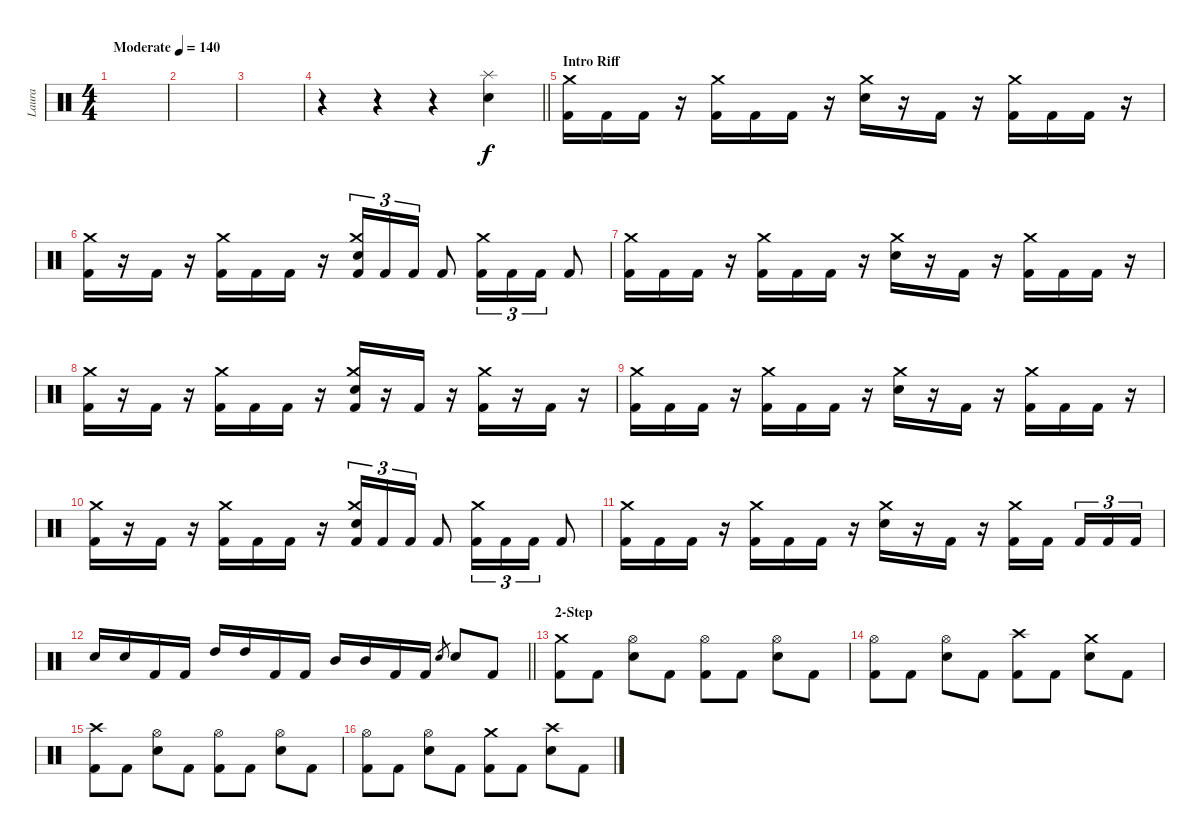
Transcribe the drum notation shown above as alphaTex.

\track ("Laura" "Laura") {instrument percussion}
\staff {score}
\articulation defaults
\ts (4 4)
\tempo (140 "Moderate")
\clef neutral
\ks c
|
|
|
\barLineRight lightlight
r.4 r.4 r.4 ("Splash (hit)" "Electric Snare (hit)").4 |
\section ("" "Intro Riff")
("Crash medium (hit)" "Kick (hit) 2").16 "Kick (hit) 2".16 "Kick (hit) 2".16 r.16 ("Crash medium (hit)" "Kick (hit) 2").16 "Kick (hit) 2".16 "Kick (hit) 2".16 r.16 ("Crash medium (hit)" "Electric Snare (hit)").16 r.16 "Kick (hit) 2".16 r.16 ("Crash medium (hit)" "Kick (hit) 2").16 "Kick (hit) 2".16 "Kick (hit) 2".16 r.16 |
("Crash medium (hit)" "Kick (hit) 2").16 r.16 "Kick (hit) 2".16 r.16 ("Crash medium (hit)" "Kick (hit) 2").16 "Kick (hit) 2".16 "Kick (hit) 2".16 r.16 ("Crash medium (hit)" "Electric Snare (hit)" "Kick (hit) 2").16{tu (3 2)} "Kick (hit) 2".16{tu (3 2)} "Kick (hit) 2".16{tu (3 2)} "Kick (hit) 2".8 ("Crash medium (hit)" "Kick (hit) 2").16{tu (3 2)} "Kick (hit) 2".16{tu (3 2)} "Kick (hit) 2".16{tu (3 2)} "Kick (hit) 2".8 |
("Crash medium (hit)" "Kick (hit) 2").16 "Kick (hit) 2".16 "Kick (hit) 2".16 r.16 ("Crash medium (hit)" "Kick (hit) 2").16 "Kick (hit) 2".16 "Kick (hit) 2".16 r.16 ("Crash medium (hit)" "Electric Snare (hit)").16 r.16 "Kick (hit) 2".16 r.16 ("Crash medium (hit)" "Kick (hit) 2").16 "Kick (hit) 2".16 "Kick (hit) 2".16 r.16 |
("Crash medium (hit)" "Kick (hit) 2").16 r.16 "Kick (hit) 2".16 r.16 ("Crash medium (hit)" "Kick (hit) 2").16 "Kick (hit) 2".16 "Kick (hit) 2".16 r.16 ("Crash medium (hit)" "Electric Snare (hit)" "Kick (hit) 2").16 r.16 "Kick (hit) 2".16 r.16 ("Crash medium (hit)" "Kick (hit) 2").16 r.16 "Kick (hit) 2".16 r.16 |
("Crash medium (hit)" "Kick (hit) 2").16 "Kick (hit) 2".16 "Kick (hit) 2".16 r.16 ("Crash medium (hit)" "Kick (hit) 2").16 "Kick (hit) 2".16 "Kick (hit) 2".16 r.16 ("Crash medium (hit)" "Electric Snare (hit)").16 r.16 "Kick (hit) 2".16 r.16 ("Crash medium (hit)" "Kick (hit) 2").16 "Kick (hit) 2".16 "Kick (hit) 2".16 r.16 |
("Crash medium (hit)" "Kick (hit) 2").16 r.16 "Kick (hit) 2".16 r.16 ("Crash medium (hit)" "Kick (hit) 2").16 "Kick (hit) 2".16 "Kick (hit) 2".16 r.16 ("Crash medium (hit)" "Electric Snare (hit)" "Kick (hit) 2").16{tu (3 2)} "Kick (hit) 2".16{tu (3 2)} "Kick (hit) 2".16{tu (3 2)} "Kick (hit) 2".8 ("Crash medium (hit)" "Kick (hit) 2").16{tu (3 2)} "Kick (hit) 2".16{tu (3 2)} "Kick (hit) 2".16{tu (3 2)} "Kick (hit) 2".8 |
("Crash medium (hit)" "Kick (hit) 2").16 "Kick (hit) 2".16 "Kick (hit) 2".16 r.16 ("Crash medium (hit)" "Kick (hit) 2").16 "Kick (hit) 2".16 "Kick (hit) 2".16 r.16 ("Crash medium (hit)" "Electric Snare (hit)").16 r.16 "Kick (hit) 2".16 r.16 ("Crash medium (hit)" "Kick (hit) 2").16 "Kick (hit) 2".16{beam splitsecondary} "Kick (hit) 2".16{tu (3 2)} "Kick (hit) 2".16{tu (3 2)} "Kick (hit) 2".16{tu (3 2)} |
\barLineRight lightlight "Electric Snare (hit)".16 "Electric Snare (hit)".16 "Kick (hit) 2".16 "Kick (hit) 2".16 "High Tom (hit)".16 "High Tom (hit)".16 "Kick (hit) 2".16 "Kick (hit) 2".16 "Mid Tom (hit)".16 "Mid Tom (hit)".16 "Kick (hit) 2".16 "Kick (hit) 2".16 "Electric Snare (hit)".8{gr} "Electric Snare (hit)".8 "Kick (hit) 2".8
|
\section ("" "2-Step")
("Crash medium (hit)" "Kick (hit) 2").8 "Kick (hit) 2".8 ("Hi-Hat (open)" "Electric Snare (hit)").8 "Kick (hit) 2".8 ("Hi-Hat (open)" "Kick (hit) 2").8 "Kick (hit) 2".8 ("Hi-Hat (open)" "Electric Snare (hit)").8 "Kick (hit) 2".8 |
("Hi-Hat (open)" "Kick (hit) 2").8 "Kick (hit) 2".8 ("Hi-Hat (open)" "Electric Snare (hit)").8 "Kick (hit) 2".8 ("Crash high (hit)" "Kick (hit) 2").8 "Kick (hit) 2".8 ("Crash medium (hit)" "Electric Snare (hit)").8 "Kick (hit) 2".8 |
("Crash high (hit)" "Kick (hit) 2").8 "Kick (hit) 2".8 ("Hi-Hat (open)" "Electric Snare (hit)").8 "Kick (hit) 2".8 ("Hi-Hat (open)" "Kick (hit) 2").8 "Kick (hit) 2".8 ("Hi-Hat (open)" "Electric Snare (hit)").8 "Kick (hit) 2".8 |
("Hi-Hat (open)" "Kick (hit) 2").8 "Kick (hit) 2".8 ("Hi-Hat (open)" "Electric Snare (hit)").8 "Kick (hit) 2".8 ("Crash medium (hit)" "Kick (hit) 2").8 "Kick (hit) 2".8 ("Crash high (hit)" "Electric Snare (hit)").8 "Kick (hit) 2".8
